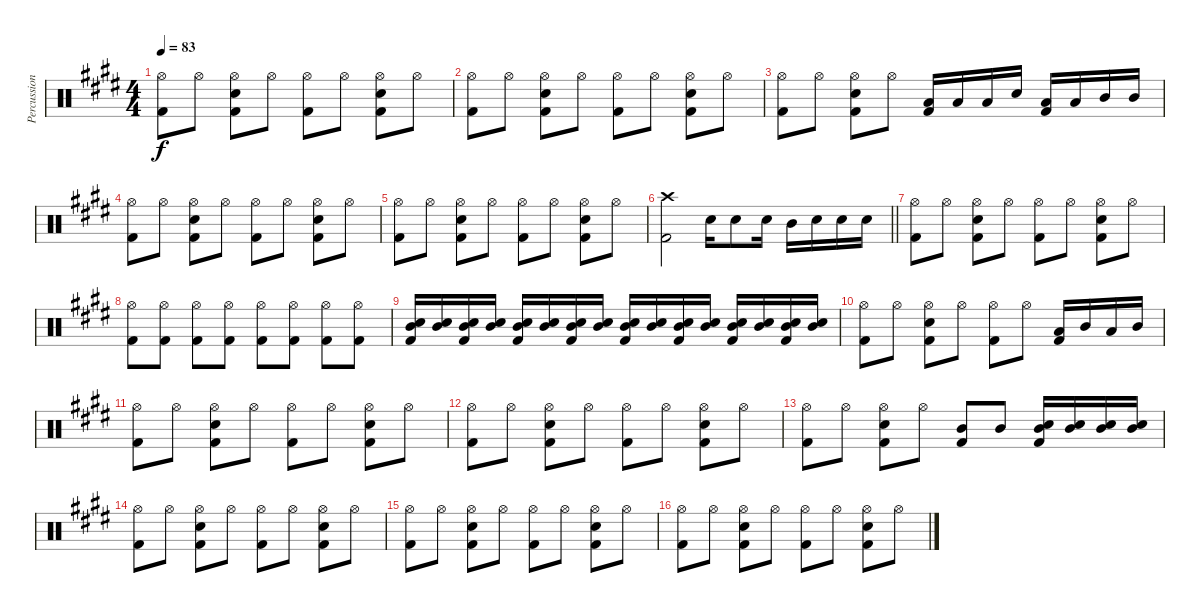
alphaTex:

\track ("Percussion" "Percussion") {instrument percussion}
\staff {score}
\articulation defaults
\ts (4 4)
\tempo 83
\clef neutral
\ks e
("Hi-Hat (open)" "Kick (hit) 2").8{dy f} "Hi-Hat (open)".8 ("Hi-Hat (open)" "Kick (hit) 2" "Snare (hit) 2").8 "Hi-Hat (open)".8 ("Hi-Hat (open)" "Kick (hit) 2").8 "Hi-Hat (open)".8 ("Hi-Hat (open)" "Kick (hit) 2" "Snare (hit) 2").8 "Hi-Hat (open)".8 |
("Hi-Hat (open)" "Kick (hit) 2").8 "Hi-Hat (open)".8 ("Hi-Hat (open)" "Kick (hit) 2" "Snare (hit) 2").8 "Hi-Hat (open)".8 ("Hi-Hat (open)" "Kick (hit) 2").8 "Hi-Hat (open)".8 ("Hi-Hat (open)" "Kick (hit) 2" "Snare (hit) 2").8 "Hi-Hat (open)".8 |
("Hi-Hat (open)" "Kick (hit) 2").8 "Hi-Hat (open)".8 ("Hi-Hat (open)" "Snare (hit) 2" "Kick (hit) 2").8 "Hi-Hat (open)".8 ("Low Floor Tom (hit)" "Kick (hit) 2").16 "Low Floor Tom (hit)".16 "Low Floor Tom (hit)".16 "Snare (hit) 2".16 ("Low Floor Tom (hit)" "Kick (hit) 2").16 "Low Floor Tom (hit)".16 "Mid Tom (hit)".16 "Mid Tom (hit)".16 |
("Hi-Hat (open)" "Kick (hit) 2").8 "Hi-Hat (open)".8 ("Hi-Hat (open)" "Kick (hit) 2" "Snare (hit) 2").8 "Hi-Hat (open)".8 ("Hi-Hat (open)" "Kick (hit) 2").8 "Hi-Hat (open)".8 ("Hi-Hat (open)" "Kick (hit) 2" "Snare (hit) 2").8 "Hi-Hat (open)".8 |
("Hi-Hat (open)" "Kick (hit) 2").8 "Hi-Hat (open)".8 ("Hi-Hat (open)" "Kick (hit) 2" "Snare (hit) 2").8 "Hi-Hat (open)".8 ("Hi-Hat (open)" "Kick (hit) 2").8 "Hi-Hat (open)".8 ("Hi-Hat (open)" "Kick (hit) 2" "Snare (hit) 2").8 "Hi-Hat (open)".8 |
\barLineRight lightlight
("Crash high (hit)" "Kick (hit) 2").2 "Snare (hit) 2".16 "Snare (hit) 2".8 "Snare (hit) 2".16 "Mid Tom (hit)".16 "Snare (hit) 2".16 "Snare (hit) 2".16 "Snare (hit) 2".16 |
("Hi-Hat (open)" "Kick (hit) 2").8 "Hi-Hat (open)".8 ("Hi-Hat (open)" "Kick (hit) 2" "Snare (hit) 2").8 "Hi-Hat (open)".8 ("Hi-Hat (open)" "Kick (hit) 2").8 "Hi-Hat (open)".8 ("Hi-Hat (open)" "Kick (hit) 2" "Snare (hit) 2").8 "Hi-Hat (open)".8 |
("Hi-Hat (open)" "Kick (hit) 2").8 ("Hi-Hat (open)" "Kick (hit) 2").8 ("Hi-Hat (open)" "Kick (hit) 2").8 ("Hi-Hat (open)" "Kick (hit) 2").8 ("Hi-Hat (open)" "Kick (hit) 2").8 ("Hi-Hat (open)" "Kick (hit) 2").8 ("Hi-Hat (open)" "Kick (hit) 2").8 ("Hi-Hat (open)" "Kick (hit) 2").8 |
("Snare (hit) 2" "Mid Tom (hit)" "Kick (hit) 2").16 ("Snare (hit) 2" "Mid Tom (hit)").16 ("Snare (hit) 2" "Mid Tom (hit)" "Kick (hit) 2").16 ("Snare (hit) 2" "Mid Tom (hit)").16 ("Snare (hit) 2" "Mid Tom (hit)" "Kick (hit) 2").16 ("Snare (hit) 2" "Mid Tom (hit)").16 ("Snare (hit) 2" "Mid Tom (hit)" "Kick (hit) 2").16 ("Snare (hit) 2" "Mid Tom (hit)").16 ("Snare (hit) 2" "Mid Tom (hit)" "Kick (hit) 2").16 ("Snare (hit) 2" "Mid Tom (hit)").16 ("Snare (hit) 2" "Mid Tom (hit)" "Kick (hit) 2").16 ("Snare (hit) 2" "Mid Tom (hit)").16 ("Snare (hit) 2" "Mid Tom (hit)" "Kick (hit) 2").16 ("Snare (hit) 2" "Mid Tom (hit)").16 ("Snare (hit) 2" "Mid Tom (hit)" "Kick (hit) 2").16 ("Snare (hit) 2" "Mid Tom (hit)").16 |
("Hi-Hat (open)" "Kick (hit) 2").8 "Hi-Hat (open)".8 ("Hi-Hat (open)" "Kick (hit) 2" "Snare (hit) 2").8 "Hi-Hat (open)".8 ("Hi-Hat (open)" "Kick (hit) 2").8 "Hi-Hat (open)".8 ("Low Floor Tom (hit)" "Kick (hit) 2").16 "Mid Tom (hit)".16 "Low Floor Tom (hit)".16 "Mid Tom (hit)".16 |
("Hi-Hat (open)" "Kick (hit) 2").8 "Hi-Hat (open)".8 ("Hi-Hat (open)" "Kick (hit) 2" "Snare (hit) 2").8 "Hi-Hat (open)".8 ("Hi-Hat (open)" "Kick (hit) 2").8 "Hi-Hat (open)".8 ("Hi-Hat (open)" "Kick (hit) 2" "Snare (hit) 2").8 "Hi-Hat (open)".8 |
("Hi-Hat (open)" "Kick (hit) 2").8 "Hi-Hat (open)".8 ("Hi-Hat (open)" "Kick (hit) 2" "Snare (hit) 2").8 "Hi-Hat (open)".8 ("Hi-Hat (open)" "Kick (hit) 2").8 "Hi-Hat (open)".8 ("Hi-Hat (open)" "Kick (hit) 2" "Snare (hit) 2").8 "Hi-Hat (open)".8 |
("Hi-Hat (open)" "Kick (hit) 2").8 "Hi-Hat (open)".8 ("Hi-Hat (open)" "Snare (hit) 2" "Kick (hit) 2").8 "Hi-Hat (open)".8 ("Mid Tom (hit)" "Kick (hit) 2").8 "Mid Tom (hit)".8 ("Mid Tom (hit)" "Snare (hit) 2" "Kick (hit) 2").16 ("Mid Tom (hit)" "Snare (hit) 2").16 ("Mid Tom (hit)" "Snare (hit) 2").16 ("Mid Tom (hit)" "Snare (hit) 2").16 |
("Hi-Hat (open)" "Kick (hit) 2").8 "Hi-Hat (open)".8 ("Hi-Hat (open)" "Kick (hit) 2" "Snare (hit) 2").8 "Hi-Hat (open)".8 ("Hi-Hat (open)" "Kick (hit) 2").8 "Hi-Hat (open)".8 ("Hi-Hat (open)" "Kick (hit) 2" "Snare (hit) 2").8 "Hi-Hat (open)".8 |
("Hi-Hat (open)" "Kick (hit) 2").8 "Hi-Hat (open)".8 ("Hi-Hat (open)" "Kick (hit) 2" "Snare (hit) 2").8 "Hi-Hat (open)".8 ("Hi-Hat (open)" "Kick (hit) 2").8 "Hi-Hat (open)".8 ("Hi-Hat (open)" "Kick (hit) 2" "Snare (hit) 2").8 "Hi-Hat (open)".8 |
("Hi-Hat (open)" "Kick (hit) 2").8 "Hi-Hat (open)".8 ("Hi-Hat (open)" "Kick (hit) 2" "Snare (hit) 2").8 "Hi-Hat (open)".8 ("Hi-Hat (open)" "Kick (hit) 2").8 "Hi-Hat (open)".8 ("Hi-Hat (open)" "Kick (hit) 2" "Snare (hit) 2").8 "Hi-Hat (open)".8
